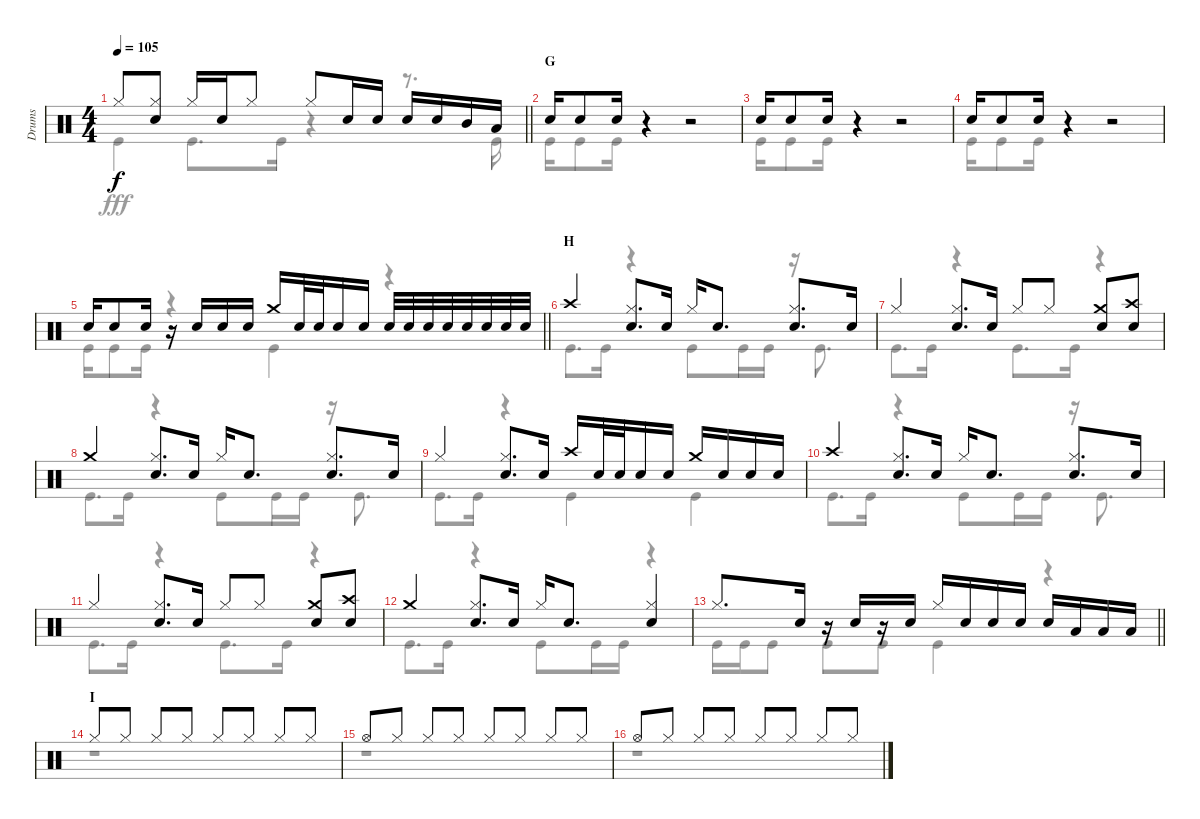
\track ("Drums" "Drums") {instrument percussion}
\staff {score}
\articulation defaults
\voice
\ts (4 4)
\tempo 105
\clef neutral
\barLineRight lightlight
\ks c "Hi-Hat (closed)".8{dy f}
("Hi-Hat (closed)" "Snare (hit) 2").8 "Hi-Hat (closed)".16 "Snare (hit) 2".16 "Hi-Hat (closed)".8 "Hi-Hat (closed)".8 "Snare (hit) 2".16 "Snare (hit) 2".16 "Snare (hit) 2".16 "Snare (hit) 2".16 "Mid Tom (hit)".16 "Low Tom (hit)".16 |
\section ("" "G")
"Snare (hit) 2".16 "Snare (hit) 2".8 "Snare (hit) 2".16 r.4 r.2 |
"Snare (hit) 2".16 "Snare (hit) 2".8 "Snare (hit) 2".16 r.4 r.2 |
"Snare (hit) 2".16 "Snare (hit) 2".8 "Snare (hit) 2".16 r.4 r.2 |
\barLineRight lightlight "Snare (hit) 2".16 "Snare (hit) 2".8 "Snare (hit) 2".16
r.16 "Snare (hit) 2".16 "Snare (hit) 2".16 "Snare (hit) 2".16 "Crash medium (hit)".16 "Snare (hit) 2".32 "Snare (hit) 2".32 "Snare (hit) 2".16 "Snare (hit) 2".16 "Snare (hit) 2".32 "Snare (hit) 2".32 "Snare (hit) 2".32 "Snare (hit) 2".32 "Snare (hit) 2".32 "Snare (hit) 2".32 "Snare (hit) 2".32 "Snare (hit) 2".32 |
\section ("" "H")
"Crash high (hit)".4 ("Hi-Hat (closed)" "Snare (hit) 2").8{d} "Snare (hit) 2".16 "Hi-Hat (closed)".16 "Snare (hit) 2".8{d} ("Hi-Hat (closed)" "Snare (hit) 2").8{d} "Snare (hit) 2".16 |
"Hi-Hat (closed)".4 ("Hi-Hat (closed)" "Snare (hit) 2").8{d} "Snare (hit) 2".16 "Hi-Hat (closed)".8 "Hi-Hat (closed)".8 ("Crash medium (hit)" "Snare (hit) 2").8 ("Crash high (hit)" "Snare (hit) 2").8 |
"Crash medium (hit)".4 ("Hi-Hat (closed)" "Snare (hit) 2").8{d} "Snare (hit) 2".16 "Hi-Hat (closed)".16 "Snare (hit) 2".8{d} ("Hi-Hat (closed)" "Snare (hit) 2").8{d} "Snare (hit) 2".16 |
"Hi-Hat (closed)".4 ("Hi-Hat (closed)" "Snare (hit) 2").8{d} "Snare (hit) 2".16 "Crash high (hit)".16 "Snare (hit) 2".32 "Snare (hit) 2".32 "Snare (hit) 2".16 "Snare (hit) 2".16 "Crash medium (hit)".16 "Snare (hit) 2".16 "Snare (hit) 2".16 "Snare (hit) 2".16 |
"Crash high (hit)".4 ("Hi-Hat (closed)" "Snare (hit) 2").8{d} "Snare (hit) 2".16 "Hi-Hat (closed)".16 "Snare (hit) 2".8{d} ("Hi-Hat (closed)" "Snare (hit) 2").8{d} "Snare (hit) 2".16 |
"Hi-Hat (closed)".4 ("Hi-Hat (closed)" "Snare (hit) 2").8{d} "Snare (hit) 2".16 "Hi-Hat (closed)".8 "Hi-Hat (closed)".8 ("Crash medium (hit)" "Snare (hit) 2").8 ("Crash high (hit)" "Snare (hit) 2").8 |
"Crash medium (hit)".4 ("Hi-Hat (closed)" "Snare (hit) 2").8{d} "Snare (hit) 2".16 "Hi-Hat (closed)".16 "Snare (hit) 2".8{d} ("Hi-Hat (closed)" "Snare (hit) 2").4 |
\barLineRight lightlight "Hi-Hat (closed)".8{d} "Snare (hit) 2".16
r.16 "Snare (hit) 2".16 r.16 "Snare (hit) 2".16 "Hi-Hat (closed)".16 "Snare (hit) 2".16 "Snare (hit) 2".16 "Snare (hit) 2".16 "Snare (hit) 2".16 "Low Tom (hit)".16 "Low Tom (hit)".16 "Low Tom (hit)".16 |
\section ("" "I")
"Hi-Hat (closed)".8 "Hi-Hat (closed)".8 "Hi-Hat (closed)".8 "Hi-Hat (closed)".8 "Hi-Hat (closed)".8 "Hi-Hat (closed)".8 "Hi-Hat (closed)".8 "Hi-Hat (closed)".8 |
"Hi-Hat (open)".8 "Hi-Hat (closed)".8 "Hi-Hat (closed)".8 "Hi-Hat (closed)".8 "Hi-Hat (closed)".8 "Hi-Hat (closed)".8 "Hi-Hat (closed)".8 "Hi-Hat (closed)".8 |
"Hi-Hat (open)".8 "Hi-Hat (closed)".8 "Hi-Hat (closed)".8 "Hi-Hat (closed)".8 "Hi-Hat (closed)".8 "Hi-Hat (closed)".8 "Hi-Hat (closed)".8 "Hi-Hat (closed)".8
\voice
\clef neutral
\ottava regular
\simile none
\barLineRight lightlight
\ks c "Kick (hit)".4{dy fff} "Kick (hit)".8{d} "Kick (hit)".16
r.4 r.8{d} "Kick (hit)".16 |
"Kick (hit)".16 "Kick (hit)".8 "Kick (hit)".16 r.4 r.2 |
"Kick (hit)".16 "Kick (hit)".8 "Kick (hit)".16 r.4 r.2 |
"Kick (hit)".16 "Kick (hit)".8 "Kick (hit)".16 r.4 r.2 |
\barLineRight lightlight "Kick (hit)".16 "Kick (hit)".8 "Kick (hit)".16
r.4 "Kick (hit)".4 r.4 |
"Kick (hit)".8{d} "Kick (hit)".16 r.4 "Kick (hit)".8 "Kick (hit)".16 "Kick (hit)".16 r.16 "Kick (hit)".8{d} |
"Kick (hit)".8{d} "Kick (hit)".16 r.4 "Kick (hit)".8{d} "Kick (hit)".16 r.4 |
"Kick (hit)".8{d} "Kick (hit)".16 r.4 "Kick (hit)".8 "Kick (hit)".16 "Kick (hit)".16 r.16 "Kick (hit)".8{d} |
"Kick (hit)".8{d} "Kick (hit)".16 r.4 "Kick (hit)".4 "Kick (hit)".4 |
"Kick (hit)".8{d} "Kick (hit)".16 r.4 "Kick (hit)".8 "Kick (hit)".16 "Kick (hit)".16 r.16 "Kick (hit)".8{d} |
"Kick (hit)".8{d} "Kick (hit)".16 r.4 "Kick (hit)".8{d} "Kick (hit)".16 r.4 |
"Kick (hit)".8{d} "Kick (hit)".16 r.4 "Kick (hit)".8 "Kick (hit)".16 "Kick (hit)".16 r.4 |
\barLineRight lightlight "Kick (hit)".16 "Kick (hit)".16 "Kick (hit)".8 "Kick (hit)".8 "Kick (hit)".8 "Kick (hit)".4
r.4 |
r.1 |
r.1 |
r.1
